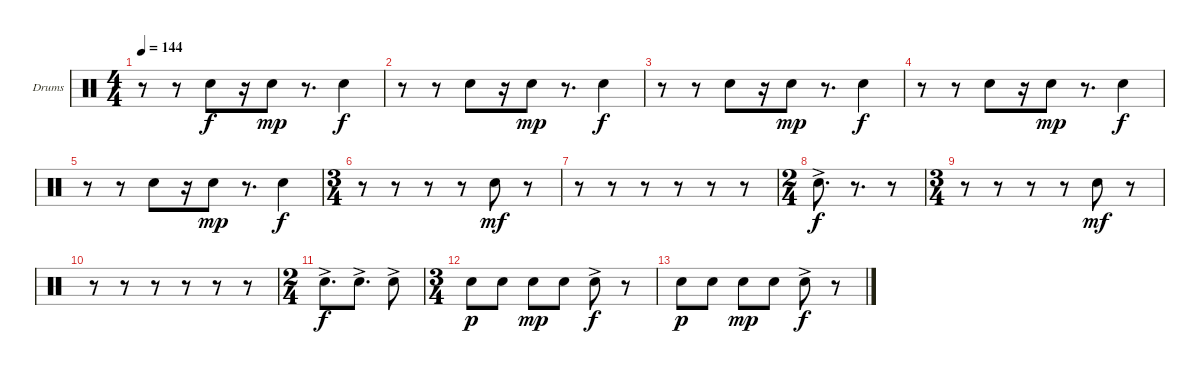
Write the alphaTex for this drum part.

\defaultSystemsLayout 4
\bracketExtendMode groupsimilarinstruments
\firstSystemTrackNameOrientation horizontal
\otherSystemsTrackNameOrientation horizontal
\track ("Snare" "Drums") {instrument percussion}
\staff {score}
\articulation defaults
\ts (4 4)
\tempo 144
\clef neutral
\ks c
r.8{dy f} r.8 "Snare (hit) 2".8 r.16 "Snare (hit) 2".8{dy mp} r.8{d} "Snare (hit) 2".4{dy f} |
r.8 r.8 "Snare (hit) 2".8 r.16 "Snare (hit) 2".8{dy mp} r.8{d} "Snare (hit) 2".4{dy f} |
r.8 r.8 "Snare (hit) 2".8 r.16 "Snare (hit) 2".8{dy mp} r.8{d} "Snare (hit) 2".4{dy f} |
r.8 r.8 "Snare (hit) 2".8 r.16 "Snare (hit) 2".8{dy mp} r.8{d} "Snare (hit) 2".4{dy f} |
r.8 r.8 "Snare (hit) 2".8 r.16 "Snare (hit) 2".8{dy mp} r.8{d} "Snare (hit) 2".4{dy f} |
\ts (3 4)
r.8 r.8 r.8 r.8 "Snare (hit) 2".8{dy mf} r.8 |
r.8 r.8 r.8 r.8 r.8 r.8 |
\ts (2 4)
"Snare (hit) 2"{ac}.8{d dy f} r.8{d} r.8 |
\ts (3 4)
r.8 r.8 r.8 r.8 "Snare (hit) 2".8{dy mf} r.8 |
r.8 r.8 r.8 r.8 r.8 r.8 |
\ts (2 4)
"Snare (hit) 2"{ac}.8{d dy f} "Snare (hit) 2"{ac}.8{d} "Snare (hit) 2"{ac}.8 |
\ts (3 4)
"Snare (hit) 2".8{dy p} "Snare (hit) 2".8 "Snare (hit) 2".8{dy mp} "Snare (hit) 2".8 "Snare (hit) 2"{ac}.8{dy f} r.8 |
"Snare (hit) 2".8{dy p} "Snare (hit) 2".8 "Snare (hit) 2".8{dy mp} "Snare (hit) 2".8 "Snare (hit) 2"{ac}.8{dy f} r.8
